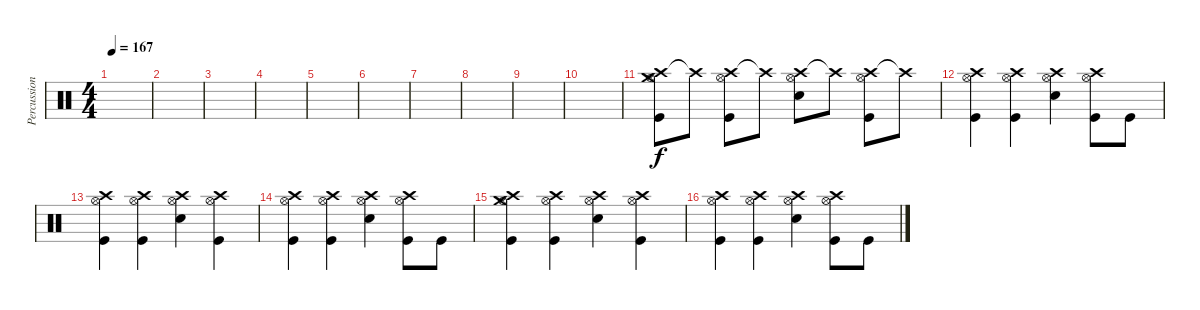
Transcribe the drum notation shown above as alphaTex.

\track ("Percussion" "Percussion") {instrument percussion}
\staff {score}
\articulation defaults
\ts (4 4)
\tempo 167
\clef neutral
\ks c
|
|
|
|
|
|
|
|
|
|
("Crash high (hit)" "Hi-Hat (open)" "Crash medium (hit)" "Kick (hit)").8 "Crash high (hit)"{t}.8 ("Crash high (hit)" "Hi-Hat (open)" "Kick (hit)").8 "Crash high (hit)"{t}.8 ("Crash high (hit)" "Hi-Hat (open)" "Electric Snare (hit)").8 "Crash high (hit)"{t}.8 ("Crash high (hit)" "Hi-Hat (open)" "Kick (hit)").8 "Crash high (hit)"{t}.8 |
("Crash high (hit)" "Hi-Hat (open)" "Kick (hit)").4 ("Crash high (hit)" "Hi-Hat (open)" "Kick (hit)").4 ("Crash high (hit)" "Hi-Hat (open)" "Electric Snare (hit)").4 ("Crash high (hit)" "Hi-Hat (open)" "Kick (hit)").8 "Kick (hit)".8 |
("Crash high (hit)" "Hi-Hat (open)" "Kick (hit)").4 ("Crash high (hit)" "Hi-Hat (open)" "Kick (hit)").4 ("Crash high (hit)" "Hi-Hat (open)" "Electric Snare (hit)").4 ("Crash high (hit)" "Hi-Hat (open)" "Kick (hit)").4 |
("Crash high (hit)" "Hi-Hat (open)" "Kick (hit)").4 ("Crash high (hit)" "Hi-Hat (open)" "Kick (hit)").4 ("Crash high (hit)" "Hi-Hat (open)" "Electric Snare (hit)").4 ("Crash high (hit)" "Hi-Hat (open)" "Kick (hit)").8 "Kick (hit)".8 |
("Crash high (hit)" "Hi-Hat (open)" "Crash medium (hit)" "Kick (hit)").4 ("Crash high (hit)" "Hi-Hat (open)" "Kick (hit)").4 ("Crash high (hit)" "Hi-Hat (open)" "Electric Snare (hit)").4 ("Crash high (hit)" "Hi-Hat (open)" "Kick (hit)").4 |
("Crash high (hit)" "Hi-Hat (open)" "Kick (hit)").4 ("Crash high (hit)" "Hi-Hat (open)" "Kick (hit)").4 ("Crash high (hit)" "Hi-Hat (open)" "Electric Snare (hit)").4 ("Crash high (hit)" "Hi-Hat (open)" "Kick (hit)").8 "Kick (hit)".8
